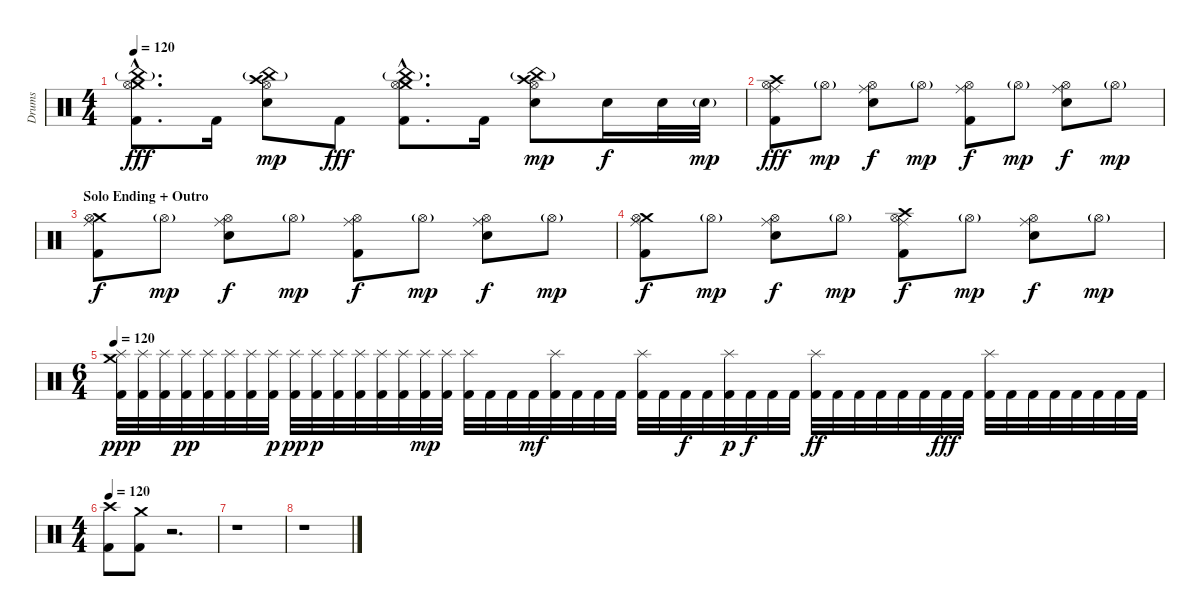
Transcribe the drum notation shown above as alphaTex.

\track ("Drums" "Drums") {instrument percussion}
\staff {score}
\articulation defaults
\ts (4 4)
\tempo 120
\clef neutral
\ks c
("Crash medium (hit)"{hac} "Hi-Hat (open)"{hac} "China (hit)"{g hac} "Kick (hit) 2"{hac}).8{d dy fff} "Kick (hit) 2".16 ("Crash high (hit)" "Hi-Hat (open)" "China (hit)"{g} "Electric Snare (hit)").8{dy mp} "Kick (hit) 2".8{dy fff} ("Crash medium (hit)"{hac} "Hi-Hat (open)"{hac} "China (hit)"{g hac} "Kick (hit) 2"{hac}).8{d} "Kick (hit) 2".16 ("Crash high (hit)" "Hi-Hat (open)" "China (hit)"{g} "Electric Snare (hit)").8{dy mp} "Electric Snare (hit)".16{dy f} "Electric Snare (hit)".32 "Electric Snare (hit)"{g}.32{dy mp} |
("Ride (middle)" "Crash high (hit)" "Hi-Hat (open)" "Kick (hit) 2").8{dy fff} "Hi-Hat (open)"{g}.8{dy mp} ("Ride (middle)" "Hi-Hat (open)" "Electric Snare (hit)").8{dy f} "Hi-Hat (open)"{g}.8{dy mp} ("Ride (middle)" "Hi-Hat (open)" "Kick (hit) 2").8{dy f} "Hi-Hat (open)"{g}.8{dy mp} ("Ride (middle)" "Hi-Hat (open)" "Electric Snare (hit)").8{dy f} "Hi-Hat (open)"{g}.8{dy mp} |
\section ("" "Solo Ending + Outro")
("Ride (middle)" "Crash medium (hit)" "Hi-Hat (open)" "Kick (hit) 2").8{dy f} "Hi-Hat (open)"{g}.8{dy mp} ("Ride (middle)" "Hi-Hat (open)" "Electric Snare (hit)").8{dy f} "Hi-Hat (open)"{g}.8{dy mp} ("Ride (middle)" "Hi-Hat (open)" "Kick (hit) 2").8{dy f} "Hi-Hat (open)"{g}.8{dy mp} ("Ride (middle)" "Hi-Hat (open)" "Electric Snare (hit)").8{dy f} "Hi-Hat (open)"{g}.8{dy mp} |
("Ride (middle)" "Crash medium (hit)" "Hi-Hat (open)" "Kick (hit) 2").8{dy f} "Hi-Hat (open)"{g}.8{dy mp} ("Ride (middle)" "Hi-Hat (open)" "Electric Snare (hit)").8{dy f} "Hi-Hat (open)"{g}.8{dy mp} ("Ride (middle)" "Crash high (hit)" "Hi-Hat (open)" "Kick (hit) 2").8{dy f} "Hi-Hat (open)"{g}.8{dy mp} ("Ride (middle)" "Hi-Hat (open)" "Electric Snare (hit)").8{dy f} "Hi-Hat (open)"{g}.8{dy mp} |
\ts (6 4)
\tempo 90
\tempo 120
("Crash medium (hit)" "Splash (hit)" "Kick (hit) 2").32{dy ppp} ("Splash (hit)" "Kick (hit) 2").32 ("Splash (hit)" "Kick (hit) 2").32 ("Splash (hit)" "Kick (hit) 2").32{dy pp} ("Splash (hit)" "Kick (hit) 2").32 ("Splash (hit)" "Kick (hit) 2").32 ("Splash (hit)" "Kick (hit) 2").32 ("Splash (hit)" "Kick (hit) 2").32{dy p} ("Splash (hit)" "Kick (hit) 2").32{dy pp} ("Splash (hit)" "Kick (hit) 2").32{dy p} ("Splash (hit)" "Kick (hit) 2").32 ("Splash (hit)" "Kick (hit) 2").32 ("Splash (hit)" "Kick (hit) 2").32 ("Splash (hit)" "Kick (hit) 2").32 ("Splash (hit)" "Kick (hit) 2").32{dy mp} ("Splash (hit)" "Kick (hit) 2").32 ("Splash (hit)" "Kick (hit) 2").32 "Kick (hit) 2".32 "Kick (hit) 2".32 "Kick (hit) 2".32{dy mf} ("Splash (hit)" "Kick (hit) 2").32 "Kick (hit) 2".32 "Kick (hit) 2".32 "Kick (hit) 2".32 ("Splash (hit)" "Kick (hit) 2").32 "Kick (hit) 2".32 "Kick (hit) 2".32{dy f} "Kick (hit) 2".32 ("Splash (hit)" "Kick (hit) 2").32{dy p} "Kick (hit) 2".32{dy f} "Kick (hit) 2".32 "Kick (hit) 2".32 ("Splash (hit)" "Kick (hit) 2").32{dy ff} "Kick (hit) 2".32 "Kick (hit) 2".32 "Kick (hit) 2".32 "Kick (hit) 2".32 "Kick (hit) 2".32 "Kick (hit) 2".32{dy fff} "Kick (hit) 2".32 ("Splash (hit)" "Kick (hit) 2").32 "Kick (hit) 2".32 "Kick (hit) 2".32 "Kick (hit) 2".32 "Kick (hit) 2".32 "Kick (hit) 2".32 "Kick (hit) 2".32 "Kick (hit) 2".32 |
\ts (4 4)
\tempo 120
("Crash high (hit)" "Kick (hit) 2").8 ("Crash medium (hit)" "Kick (hit) 2").8 r.2{d} |
r.1 |
r.1
